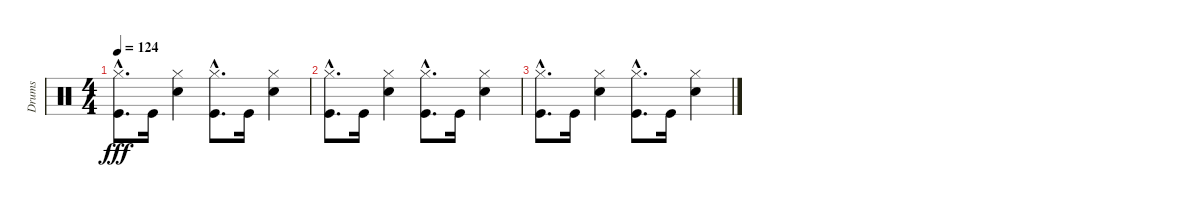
\track ("Drums" "Drums") {instrument percussion}
\staff {score}
\articulation defaults
\ts (4 4)
\tempo 124
\clef neutral
\ks c
("Hi-Hat (closed)"{hac} "Kick (hit)"{hac}).8{d dy fff} "Kick (hit)".16 ("Hi-Hat (closed)" "Snare (hit) 2").4 ("Hi-Hat (closed)"{hac} "Kick (hit)"{hac}).8{d} "Kick (hit)".16 ("Hi-Hat (closed)" "Snare (hit) 2").4 |
("Hi-Hat (closed)"{hac} "Kick (hit)"{hac}).8{d volume 0} "Kick (hit)".16 ("Hi-Hat (closed)" "Snare (hit) 2").4 ("Hi-Hat (closed)"{hac} "Kick (hit)"{hac}).8{d} "Kick (hit)".16 ("Hi-Hat (closed)" "Snare (hit) 2").4 |
("Hi-Hat (closed)"{hac} "Kick (hit)"{hac}).8{d} "Kick (hit)".16 ("Hi-Hat (closed)" "Snare (hit) 2").4 ("Hi-Hat (closed)"{hac} "Kick (hit)"{hac}).8{d} "Kick (hit)".16 ("Hi-Hat (closed)" "Snare (hit) 2").4
